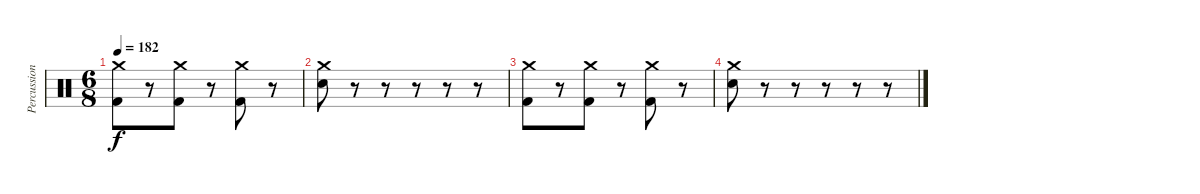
\track ("Percussion" "Percussion") {instrument percussion}
\staff {score}
\articulation defaults
\ts (6 8)
\tempo 182
\clef neutral
\ks c
("Kick (hit) 2" "Crash medium (hit)").8{dy f} r.8 ("Kick (hit) 2" "Crash medium (hit)").8 r.8 ("Kick (hit) 2" "Crash medium (hit)").8 r.8 |
("Snare (hit) 2" "Crash medium (hit)").8 r.8 r.8 r.8 r.8 r.8 |
("Kick (hit) 2" "Crash medium (hit)").8 r.8 ("Kick (hit) 2" "Crash medium (hit)").8 r.8 ("Kick (hit) 2" "Crash medium (hit)").8 r.8 |
("Snare (hit) 2" "Crash medium (hit)").8 r.8 r.8 r.8 r.8 r.8
